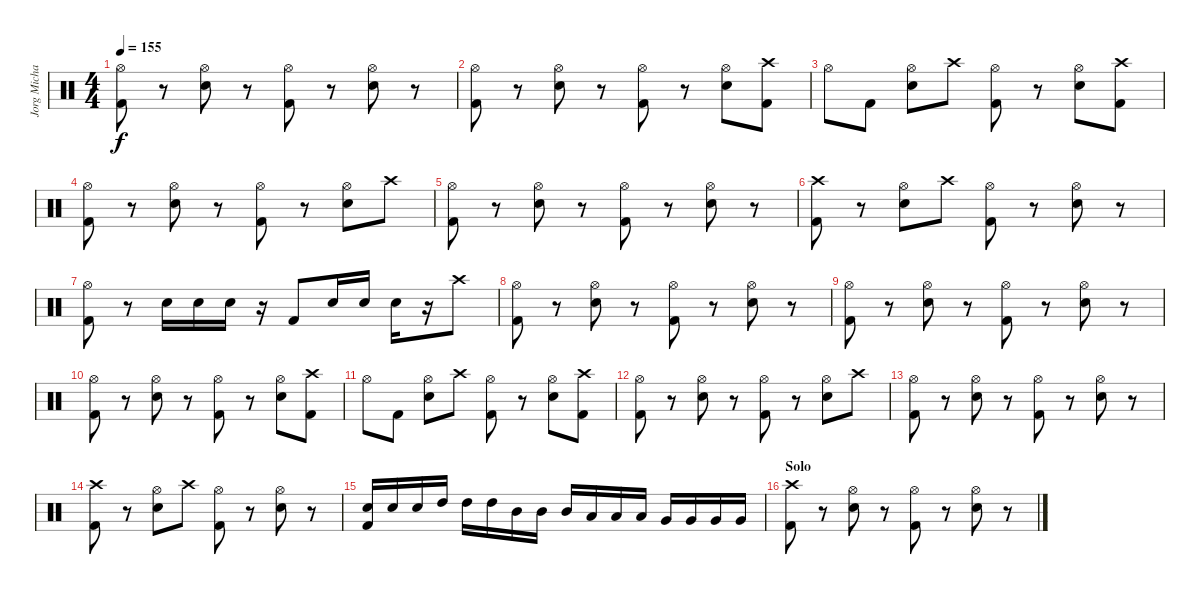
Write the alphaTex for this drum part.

\track ("Jorg Michael - Batteria" "Jorg Micha") {instrument percussion}
\staff {score}
\articulation defaults
\ts (4 4)
\tempo 155
\clef neutral
\ks c
("Kick (hit) 2" "Hi-Hat (open)").8{dy f} r.8 ("Snare (hit) 2" "Hi-Hat (open)").8 r.8 ("Kick (hit) 2" "Hi-Hat (open)").8 r.8 ("Snare (hit) 2" "Hi-Hat (open)").8 r.8 |
("Kick (hit) 2" "Hi-Hat (open)").8 r.8 ("Snare (hit) 2" "Hi-Hat (open)").8 r.8 ("Kick (hit) 2" "Hi-Hat (open)").8 r.8 ("Snare (hit) 2" "Hi-Hat (open)").8 ("Kick (hit) 2" "Crash high (hit)").8 |
"Hi-Hat (open)".8 "Kick (hit) 2".8 ("Snare (hit) 2" "Hi-Hat (open)").8 "Crash high (hit)".8 ("Kick (hit) 2" "Hi-Hat (open)").8 r.8 ("Snare (hit) 2" "Hi-Hat (open)").8 ("Kick (hit) 2" "Crash high (hit)").8 |
("Kick (hit) 2" "Hi-Hat (open)").8 r.8 ("Snare (hit) 2" "Hi-Hat (open)").8 r.8 ("Kick (hit) 2" "Hi-Hat (open)").8 r.8 ("Snare (hit) 2" "Hi-Hat (open)").8 "Crash high (hit)".8 |
("Kick (hit) 2" "Hi-Hat (open)").8 r.8 ("Snare (hit) 2" "Hi-Hat (open)").8 r.8 ("Kick (hit) 2" "Hi-Hat (open)").8 r.8 ("Snare (hit) 2" "Hi-Hat (open)").8 r.8 |
("Kick (hit) 2" "Crash high (hit)").8 r.8 ("Snare (hit) 2" "Hi-Hat (open)").8 "Crash high (hit)".8 ("Kick (hit) 2" "Hi-Hat (open)").8 r.8 ("Snare (hit) 2" "Hi-Hat (open)").8 r.8 |
("Kick (hit) 2" "Hi-Hat (open)").8 r.8 "Snare (hit) 2".16 "Snare (hit) 2".16 "Snare (hit) 2".16 r.16 "Kick (hit) 2".8 "Snare (hit) 2".16 "Snare (hit) 2".16 "Snare (hit) 2".16 r.16 "Crash high (hit)".8 |
("Kick (hit) 2" "Hi-Hat (open)").8 r.8 ("Snare (hit) 2" "Hi-Hat (open)").8 r.8 ("Kick (hit) 2" "Hi-Hat (open)").8 r.8 ("Snare (hit) 2" "Hi-Hat (open)").8 r.8 |
("Kick (hit) 2" "Hi-Hat (open)").8 r.8 ("Snare (hit) 2" "Hi-Hat (open)").8 r.8 ("Kick (hit) 2" "Hi-Hat (open)").8 r.8 ("Snare (hit) 2" "Hi-Hat (open)").8 r.8 |
("Kick (hit) 2" "Hi-Hat (open)").8 r.8 ("Snare (hit) 2" "Hi-Hat (open)").8 r.8 ("Kick (hit) 2" "Hi-Hat (open)").8 r.8 ("Snare (hit) 2" "Hi-Hat (open)").8 ("Kick (hit) 2" "Crash high (hit)").8 |
"Hi-Hat (open)".8 "Kick (hit) 2".8 ("Snare (hit) 2" "Hi-Hat (open)").8 "Crash high (hit)".8 ("Kick (hit) 2" "Hi-Hat (open)").8 r.8 ("Snare (hit) 2" "Hi-Hat (open)").8 ("Kick (hit) 2" "Crash high (hit)").8 |
("Kick (hit) 2" "Hi-Hat (open)").8 r.8 ("Snare (hit) 2" "Hi-Hat (open)").8 r.8 ("Kick (hit) 2" "Hi-Hat (open)").8 r.8 ("Snare (hit) 2" "Hi-Hat (open)").8 "Crash high (hit)".8 |
("Kick (hit) 2" "Hi-Hat (open)").8 r.8 ("Snare (hit) 2" "Hi-Hat (open)").8 r.8 ("Kick (hit) 2" "Hi-Hat (open)").8 r.8 ("Snare (hit) 2" "Hi-Hat (open)").8 r.8 |
("Kick (hit) 2" "Crash high (hit)").8 r.8 ("Snare (hit) 2" "Hi-Hat (open)").8 "Crash high (hit)".8 ("Kick (hit) 2" "Hi-Hat (open)").8 r.8 ("Snare (hit) 2" "Hi-Hat (open)").8 r.8 |
("Kick (hit) 2" "Snare (hit) 2").16 "Snare (hit) 2".16 "Snare (hit) 2".16 "High Tom (hit)".16 "High Tom (hit)".16 "High Tom (hit)".16 "Mid Tom (hit)".16 "Mid Tom (hit)".16 "Mid Tom (hit)".16 "Low Tom (hit)".16 "Low Tom (hit)".16 "Low Tom (hit)".16 "Very Low Tom (hit)".16 "Very Low Tom (hit)".16 "Very Low Tom (hit)".16 "Very Low Tom (hit)".16 |
\section ("" "Solo")
("Kick (hit) 2" "Crash high (hit)").8 r.8 ("Snare (hit) 2" "Hi-Hat (open)").8 r.8 ("Kick (hit) 2" "Hi-Hat (open)").8 r.8 ("Snare (hit) 2" "Hi-Hat (open)").8 r.8
